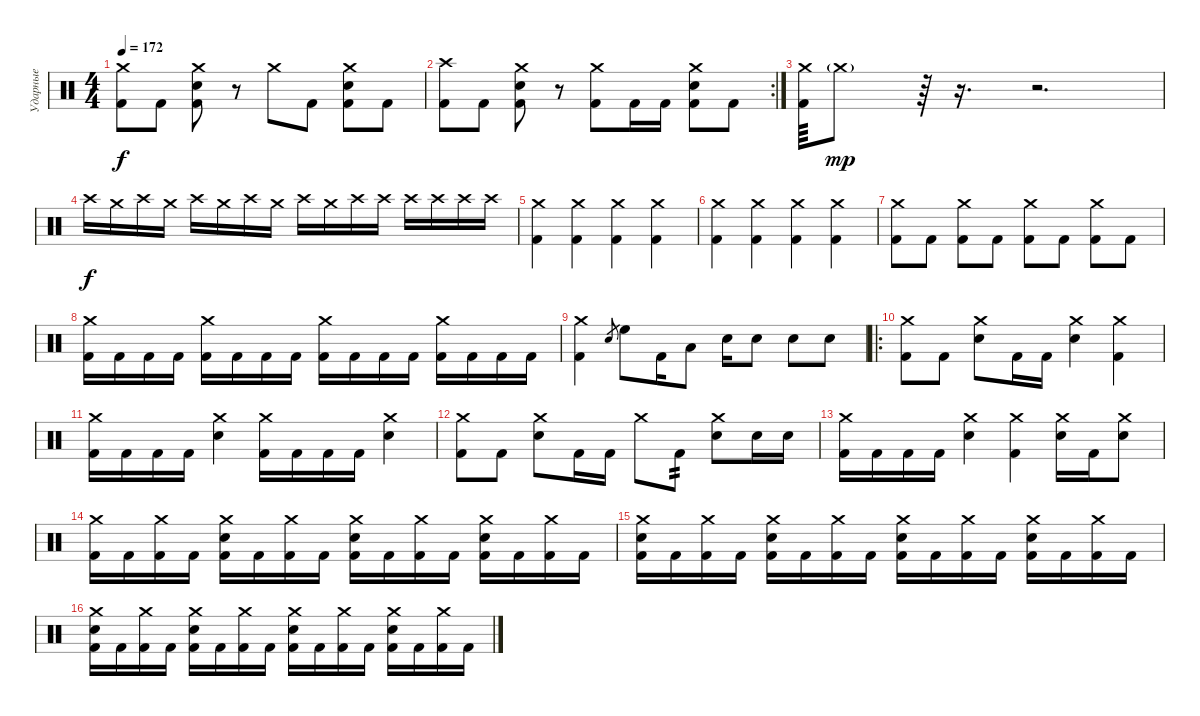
\track ("Ударные" "Ударные") {instrument percussion}
\staff {score}
\articulation defaults
\ts (4 4)
\tempo 172
\clef neutral
\ks c
("Crash medium (hit)" "Kick (hit) 2").8{dy f} "Kick (hit) 2".8 ("Crash medium (hit)" "Electric Snare (hit)" "Kick (hit) 2").8 r.8 "Crash medium (hit)".8 "Kick (hit) 2".8 ("Crash medium (hit)" "Electric Snare (hit)" "Kick (hit) 2").8 "Kick (hit) 2".8 |
\rc 2
("Crash high (hit)" "Kick (hit) 2").8 "Kick (hit) 2".8 ("Crash medium (hit)" "Electric Snare (hit)" "Kick (hit) 2").8 r.8 ("Crash medium (hit)" "Kick (hit) 2").8 "Kick (hit) 2".16 "Kick (hit) 2".16 ("Crash medium (hit)" "Electric Snare (hit)" "Kick (hit) 2").8 "Kick (hit) 2".8 |
("Crash medium (hit)" "Kick (hit) 2").64 "Crash medium (hit)"{g}.8{dy mp} r.64 r.16{d} r.2{d} |
"Crash high (hit)".16{dy f volume 7} "Crash medium (hit)".16 "Crash high (hit)".16 "Crash medium (hit)".16 "Crash high (hit)".16 "Crash medium (hit)".16 "Crash high (hit)".16 "Crash medium (hit)".16 "Crash high (hit)".16 "Crash medium (hit)".16 "Crash high (hit)".16 "Crash high (hit)".16 "Crash high (hit)".16 "Crash high (hit)".16 "Crash high (hit)".16 "Crash high (hit)".16 |
("Crash medium (hit)" "Kick (hit) 2").4{volume 16} ("Crash medium (hit)" "Kick (hit) 2").4 ("Crash medium (hit)" "Kick (hit) 2").4 ("Crash medium (hit)" "Kick (hit) 2").4 |
("Crash medium (hit)" "Kick (hit) 2").4 ("Crash medium (hit)" "Kick (hit) 2").4 ("Crash medium (hit)" "Kick (hit) 2").4 ("Crash medium (hit)" "Kick (hit) 2").4 |
("Crash medium (hit)" "Kick (hit) 2").8 "Kick (hit) 2".8 ("Crash medium (hit)" "Kick (hit) 2").8 "Kick (hit) 2".8 ("Crash medium (hit)" "Kick (hit) 2").8 "Kick (hit) 2".8 ("Crash medium (hit)" "Kick (hit) 2").8 "Kick (hit) 2".8 |
("Crash medium (hit)" "Kick (hit) 2").16 "Kick (hit) 2".16 "Kick (hit) 2".16 "Kick (hit) 2".16 ("Crash medium (hit)" "Kick (hit) 2").16 "Kick (hit) 2".16 "Kick (hit) 2".16 "Kick (hit) 2".16 ("Crash medium (hit)" "Kick (hit) 2").16 "Kick (hit) 2".16 "Kick (hit) 2".16 "Kick (hit) 2".16 ("Crash medium (hit)" "Kick (hit) 2").16 "Kick (hit) 2".16 "Kick (hit) 2".16 "Kick (hit) 2".16 |
("Crash medium (hit)" "Kick (hit) 2").4 "Electric Snare (hit)".8{gr} "High Floor Tom (hit)".8 "Kick (hit) 2".16 "Low Tom (hit)".8 "Electric Snare (hit)".16 "Electric Snare (hit)".8 "Electric Snare (hit)".8 "Electric Snare (hit)".8 |
\ro
("Crash medium (hit)" "Kick (hit) 2").8 "Kick (hit) 2".8 ("Crash medium (hit)" "Electric Snare (hit)").8 "Kick (hit) 2".16 "Kick (hit) 2".16 ("Crash medium (hit)" "Electric Snare (hit)").4 ("Crash medium (hit)" "Kick (hit) 2").4 |
("Crash medium (hit)" "Kick (hit) 2").16 "Kick (hit) 2".16 "Kick (hit) 2".16 "Kick (hit) 2".16 ("Crash medium (hit)" "Electric Snare (hit)").4 ("Crash medium (hit)" "Kick (hit) 2").16 "Kick (hit) 2".16 "Kick (hit) 2".16 "Kick (hit) 2".16 ("Crash medium (hit)" "Electric Snare (hit)").4 |
("Crash medium (hit)" "Kick (hit) 2").8 "Kick (hit) 2".8 ("Crash medium (hit)" "Electric Snare (hit)").8 "Kick (hit) 2".16 "Kick (hit) 2".16 "Crash medium (hit)".8 "Kick (hit) 2".8{tp 2} ("Crash medium (hit)" "Electric Snare (hit)").8 "Electric Snare (hit)".16 "Electric Snare (hit)".16 |
("Crash medium (hit)" "Kick (hit) 2").16 "Kick (hit) 2".16 "Kick (hit) 2".16 "Kick (hit) 2".16 ("Crash medium (hit)" "Electric Snare (hit)").4 ("Crash medium (hit)" "Kick (hit) 2").4 ("Crash medium (hit)" "Electric Snare (hit)").16 "Kick (hit) 2".16 ("Crash medium (hit)" "Electric Snare (hit)").8 |
("Crash medium (hit)" "Kick (hit) 2").16 "Kick (hit) 2".16 ("Crash medium (hit)" "Kick (hit) 2").16 "Kick (hit) 2".16 ("Crash medium (hit)" "Electric Snare (hit)" "Kick (hit) 2").16 "Kick (hit) 2".16 ("Crash medium (hit)" "Kick (hit) 2").16 "Kick (hit) 2".16 ("Crash medium (hit)" "Electric Snare (hit)" "Kick (hit) 2").16 "Kick (hit) 2".16 ("Crash medium (hit)" "Kick (hit) 2").16 "Kick (hit) 2".16 ("Crash medium (hit)" "Electric Snare (hit)" "Kick (hit) 2").16 "Kick (hit) 2".16 ("Crash medium (hit)" "Kick (hit) 2").16 "Kick (hit) 2".16 |
("Crash medium (hit)" "Electric Snare (hit)" "Kick (hit) 2").16 "Kick (hit) 2".16 ("Crash medium (hit)" "Kick (hit) 2").16 "Kick (hit) 2".16 ("Crash medium (hit)" "Electric Snare (hit)" "Kick (hit) 2").16 "Kick (hit) 2".16 ("Crash medium (hit)" "Kick (hit) 2").16 "Kick (hit) 2".16 ("Crash medium (hit)" "Electric Snare (hit)" "Kick (hit) 2").16 "Kick (hit) 2".16 ("Crash medium (hit)" "Kick (hit) 2").16 "Kick (hit) 2".16 ("Crash medium (hit)" "Electric Snare (hit)" "Kick (hit) 2").16 "Kick (hit) 2".16 ("Crash medium (hit)" "Kick (hit) 2").16 "Kick (hit) 2".16 |
("Crash medium (hit)" "Electric Snare (hit)" "Kick (hit) 2").16 "Kick (hit) 2".16 ("Crash medium (hit)" "Kick (hit) 2").16 "Kick (hit) 2".16 ("Crash medium (hit)" "Electric Snare (hit)" "Kick (hit) 2").16 "Kick (hit) 2".16 ("Crash medium (hit)" "Kick (hit) 2").16 "Kick (hit) 2".16 ("Crash medium (hit)" "Electric Snare (hit)" "Kick (hit) 2").16 "Kick (hit) 2".16 ("Crash medium (hit)" "Kick (hit) 2").16 "Kick (hit) 2".16 ("Crash medium (hit)" "Electric Snare (hit)" "Kick (hit) 2").16 "Kick (hit) 2".16 ("Crash medium (hit)" "Kick (hit) 2").16 "Kick (hit) 2".16
